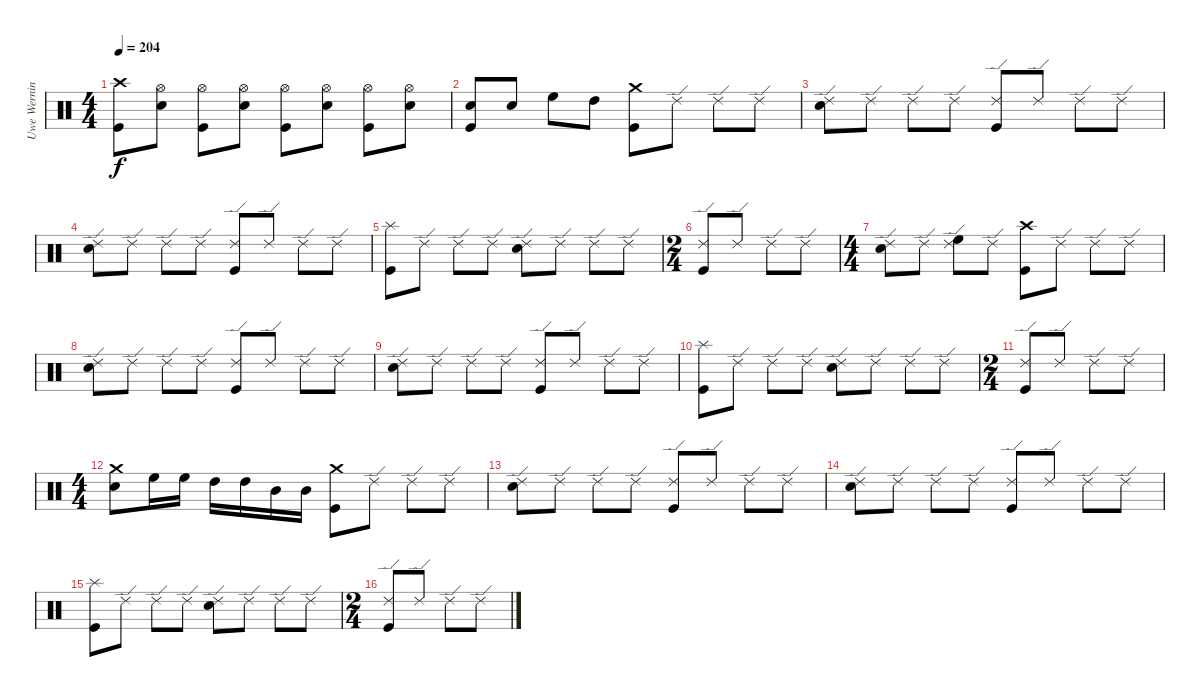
\track ("Uwe Werning" "Uwe Wernin") {instrument percussion}
\staff {score}
\articulation defaults
\ts (4 4)
\tempo 204
\clef neutral
\ks c
("Crash high (hit)" "Kick (hit)").8{dy f} ("Hi-Hat (open)" "Snare (hit) 2").8 ("Hi-Hat (open)" "Kick (hit)").8 ("Hi-Hat (open)" "Snare (hit) 2").8 ("Hi-Hat (open)" "Kick (hit)").8 ("Hi-Hat (open)" "Snare (hit) 2").8 ("Hi-Hat (open)" "Kick (hit)").8 ("Hi-Hat (open)" "Snare (hit) 2").8 |
("Snare (hit) 2" "Kick (hit)").8 "Snare (hit) 2".8 "High Floor Tom (hit)".8 "High Tom (hit)".8 ("Crash medium (hit)" "Kick (hit)").8 "Ride (edge) 2".8 "Ride (edge) 2".8 "Ride (edge) 2".8 |
("Ride (edge) 2" "Snare (hit) 2").8 "Ride (edge) 2".8 "Ride (edge) 2".8 "Ride (edge) 2".8 ("Ride (edge) 2" "Kick (hit)").8 "Ride (edge) 2".8 "Ride (edge) 2".8 "Ride (edge) 2".8 |
("Ride (edge) 2" "Snare (hit) 2").8 "Ride (edge) 2".8 "Ride (edge) 2".8 "Ride (edge) 2".8 ("Ride (edge) 2" "Kick (hit)").8 "Ride (edge) 2".8 "Ride (edge) 2".8 "Ride (edge) 2".8 |
("Splash (hit)" "Kick (hit)").8 "Ride (edge) 2".8 "Ride (edge) 2".8 "Ride (edge) 2".8 ("Ride (edge) 2" "Snare (hit) 2").8 "Ride (edge) 2".8 "Ride (edge) 2".8 "Ride (edge) 2".8 |
\ts (2 4)
("Ride (edge) 2" "Kick (hit)").8 "Ride (edge) 2".8 "Ride (edge) 2".8 "Ride (edge) 2".8 |
\ts (4 4)
("Ride (edge) 2" "Snare (hit) 2").8 "Ride (edge) 2".8 ("Ride (edge) 2" "High Floor Tom (hit)").8 "Ride (edge) 2".8 ("Crash high (hit)" "Kick (hit)").8 "Ride (edge) 2".8 "Ride (edge) 2".8 "Ride (edge) 2".8 |
("Ride (edge) 2" "Snare (hit) 2").8 "Ride (edge) 2".8 "Ride (edge) 2".8 "Ride (edge) 2".8 ("Ride (edge) 2" "Kick (hit)").8 "Ride (edge) 2".8 "Ride (edge) 2".8 "Ride (edge) 2".8 |
("Ride (edge) 2" "Snare (hit) 2").8 "Ride (edge) 2".8 "Ride (edge) 2".8 "Ride (edge) 2".8 ("Ride (edge) 2" "Kick (hit)").8 "Ride (edge) 2".8 "Ride (edge) 2".8 "Ride (edge) 2".8 |
("Splash (hit)" "Kick (hit)").8 "Ride (edge) 2".8 "Ride (edge) 2".8 "Ride (edge) 2".8 ("Ride (edge) 2" "Snare (hit) 2").8 "Ride (edge) 2".8 "Ride (edge) 2".8 "Ride (edge) 2".8 |
\ts (2 4)
("Ride (edge) 2" "Kick (hit)").8 "Ride (edge) 2".8 "Ride (edge) 2".8 "Ride (edge) 2".8 |
\ts (4 4)
("Crash medium (hit)" "Snare (hit) 2").8 "High Floor Tom (hit)".16 "High Floor Tom (hit)".16 "High Tom (hit)".16 "High Tom (hit)".16 "Mid Tom (hit)".16 "Mid Tom (hit)".16 ("Crash medium (hit)" "Kick (hit)").8 "Ride (edge) 2".8 "Ride (edge) 2".8 "Ride (edge) 2".8 |
("Ride (edge) 2" "Snare (hit) 2").8 "Ride (edge) 2".8 "Ride (edge) 2".8 "Ride (edge) 2".8 ("Ride (edge) 2" "Kick (hit)").8 "Ride (edge) 2".8 "Ride (edge) 2".8 "Ride (edge) 2".8 |
("Ride (edge) 2" "Snare (hit) 2").8 "Ride (edge) 2".8 "Ride (edge) 2".8 "Ride (edge) 2".8 ("Ride (edge) 2" "Kick (hit)").8 "Ride (edge) 2".8 "Ride (edge) 2".8 "Ride (edge) 2".8 |
("Splash (hit)" "Kick (hit)").8 "Ride (edge) 2".8 "Ride (edge) 2".8 "Ride (edge) 2".8 ("Ride (edge) 2" "Snare (hit) 2").8 "Ride (edge) 2".8 "Ride (edge) 2".8 "Ride (edge) 2".8 |
\ts (2 4)
("Ride (edge) 2" "Kick (hit)").8 "Ride (edge) 2".8 "Ride (edge) 2".8 "Ride (edge) 2".8
